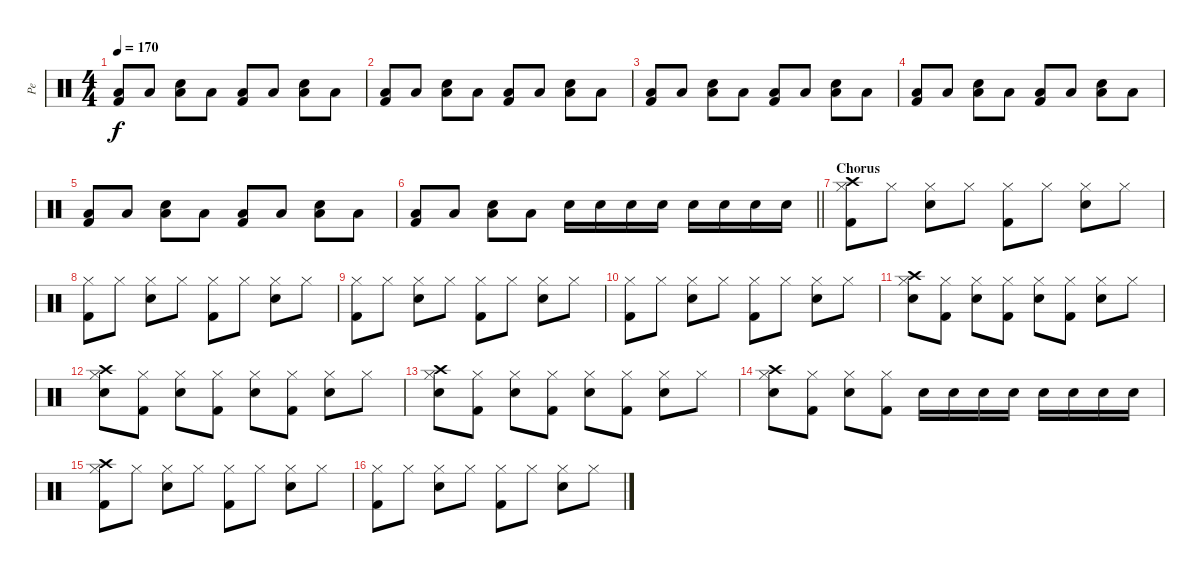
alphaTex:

\track ("Pe" "Pe") {instrument percussion}
\staff {score}
\articulation defaults
\ts (4 4)
\tempo 170
\clef neutral
\ks c
("Low Floor Tom (hit)" "Kick (hit) 2").8{dy f} "Low Floor Tom (hit)".8 ("Snare (hit) 2" "Low Floor Tom (hit)").8 "Low Floor Tom (hit)".8 ("Low Floor Tom (hit)" "Kick (hit) 2").8 "Low Floor Tom (hit)".8 ("Snare (hit) 2" "Low Floor Tom (hit)").8 "Low Floor Tom (hit)".8 |
("Low Floor Tom (hit)" "Kick (hit) 2").8 "Low Floor Tom (hit)".8 ("Snare (hit) 2" "Low Floor Tom (hit)").8 "Low Floor Tom (hit)".8 ("Low Floor Tom (hit)" "Kick (hit) 2").8 "Low Floor Tom (hit)".8 ("Snare (hit) 2" "Low Floor Tom (hit)").8 "Low Floor Tom (hit)".8 |
("Low Floor Tom (hit)" "Kick (hit) 2").8 "Low Floor Tom (hit)".8 ("Snare (hit) 2" "Low Floor Tom (hit)").8 "Low Floor Tom (hit)".8 ("Low Floor Tom (hit)" "Kick (hit) 2").8 "Low Floor Tom (hit)".8 ("Snare (hit) 2" "Low Floor Tom (hit)").8 "Low Floor Tom (hit)".8 |
("Low Floor Tom (hit)" "Kick (hit) 2").8 "Low Floor Tom (hit)".8 ("Snare (hit) 2" "Low Floor Tom (hit)").8 "Low Floor Tom (hit)".8 ("Low Floor Tom (hit)" "Kick (hit) 2").8 "Low Floor Tom (hit)".8 ("Snare (hit) 2" "Low Floor Tom (hit)").8 "Low Floor Tom (hit)".8 |
("Low Floor Tom (hit)" "Kick (hit) 2").8 "Low Floor Tom (hit)".8 ("Snare (hit) 2" "Low Floor Tom (hit)").8 "Low Floor Tom (hit)".8 ("Low Floor Tom (hit)" "Kick (hit) 2").8 "Low Floor Tom (hit)".8 ("Snare (hit) 2" "Low Floor Tom (hit)").8 "Low Floor Tom (hit)".8 |
\barLineRight lightlight
("Low Floor Tom (hit)" "Kick (hit) 2").8 "Low Floor Tom (hit)".8 ("Snare (hit) 2" "Low Floor Tom (hit)").8 "Low Floor Tom (hit)".8 "Snare (hit) 2".16 "Snare (hit) 2".16 "Snare (hit) 2".16 "Snare (hit) 2".16 "Snare (hit) 2".16 "Snare (hit) 2".16 "Snare (hit) 2".16 "Snare (hit) 2".16 |
\section ("" "Chorus")
("Crash high (hit)" "Hi-Hat (closed)" "Kick (hit) 2").8 "Hi-Hat (closed)".8 ("Hi-Hat (closed)" "Snare (hit) 2").8 "Hi-Hat (closed)".8 ("Hi-Hat (closed)" "Kick (hit) 2").8 "Hi-Hat (closed)".8 ("Hi-Hat (closed)" "Snare (hit) 2").8 "Hi-Hat (closed)".8 |
("Hi-Hat (closed)" "Kick (hit) 2").8 "Hi-Hat (closed)".8 ("Hi-Hat (closed)" "Snare (hit) 2").8 "Hi-Hat (closed)".8 ("Hi-Hat (closed)" "Kick (hit) 2").8 "Hi-Hat (closed)".8 ("Hi-Hat (closed)" "Snare (hit) 2").8 "Hi-Hat (closed)".8 |
("Hi-Hat (closed)" "Kick (hit) 2").8 "Hi-Hat (closed)".8 ("Hi-Hat (closed)" "Snare (hit) 2").8 "Hi-Hat (closed)".8 ("Hi-Hat (closed)" "Kick (hit) 2").8 "Hi-Hat (closed)".8 ("Hi-Hat (closed)" "Snare (hit) 2").8 "Hi-Hat (closed)".8 |
("Hi-Hat (closed)" "Kick (hit) 2").8 "Hi-Hat (closed)".8 ("Hi-Hat (closed)" "Snare (hit) 2").8 "Hi-Hat (closed)".8 ("Hi-Hat (closed)" "Kick (hit) 2").8 "Hi-Hat (closed)".8 ("Hi-Hat (closed)" "Snare (hit) 2").8 "Hi-Hat (closed)".8 |
("Crash high (hit)" "Hi-Hat (closed)" "Snare (hit) 2").8 ("Hi-Hat (closed)" "Kick (hit) 2").8 ("Hi-Hat (closed)" "Snare (hit) 2").8 ("Hi-Hat (closed)" "Kick (hit) 2").8 ("Hi-Hat (closed)" "Snare (hit) 2").8 ("Hi-Hat (closed)" "Kick (hit) 2").8 ("Hi-Hat (closed)" "Snare (hit) 2").8 "Hi-Hat (closed)".8 |
("Crash high (hit)" "Hi-Hat (closed)" "Snare (hit) 2").8 ("Hi-Hat (closed)" "Kick (hit) 2").8 ("Hi-Hat (closed)" "Snare (hit) 2").8 ("Hi-Hat (closed)" "Kick (hit) 2").8 ("Hi-Hat (closed)" "Snare (hit) 2").8 ("Hi-Hat (closed)" "Kick (hit) 2").8 ("Hi-Hat (closed)" "Snare (hit) 2").8 "Hi-Hat (closed)".8 |
("Crash high (hit)" "Hi-Hat (closed)" "Snare (hit) 2").8 ("Hi-Hat (closed)" "Kick (hit) 2").8 ("Hi-Hat (closed)" "Snare (hit) 2").8 ("Hi-Hat (closed)" "Kick (hit) 2").8 ("Hi-Hat (closed)" "Snare (hit) 2").8 ("Hi-Hat (closed)" "Kick (hit) 2").8 ("Hi-Hat (closed)" "Snare (hit) 2").8 "Hi-Hat (closed)".8 |
("Crash high (hit)" "Hi-Hat (closed)" "Snare (hit) 2").8 ("Hi-Hat (closed)" "Kick (hit) 2").8 ("Hi-Hat (closed)" "Snare (hit) 2").8 ("Hi-Hat (closed)" "Kick (hit) 2").8 "Snare (hit) 2".16 "Snare (hit) 2".16 "Snare (hit) 2".16 "Snare (hit) 2".16 "Snare (hit) 2".16 "Snare (hit) 2".16 "Snare (hit) 2".16 "Snare (hit) 2".16 |
("Crash high (hit)" "Hi-Hat (closed)" "Kick (hit) 2").8 "Hi-Hat (closed)".8 ("Hi-Hat (closed)" "Snare (hit) 2").8 "Hi-Hat (closed)".8 ("Hi-Hat (closed)" "Kick (hit) 2").8 "Hi-Hat (closed)".8 ("Hi-Hat (closed)" "Snare (hit) 2").8 "Hi-Hat (closed)".8 |
("Hi-Hat (closed)" "Kick (hit) 2").8 "Hi-Hat (closed)".8 ("Hi-Hat (closed)" "Snare (hit) 2").8 "Hi-Hat (closed)".8 ("Hi-Hat (closed)" "Kick (hit) 2").8 "Hi-Hat (closed)".8 ("Hi-Hat (closed)" "Snare (hit) 2").8 "Hi-Hat (closed)".8
